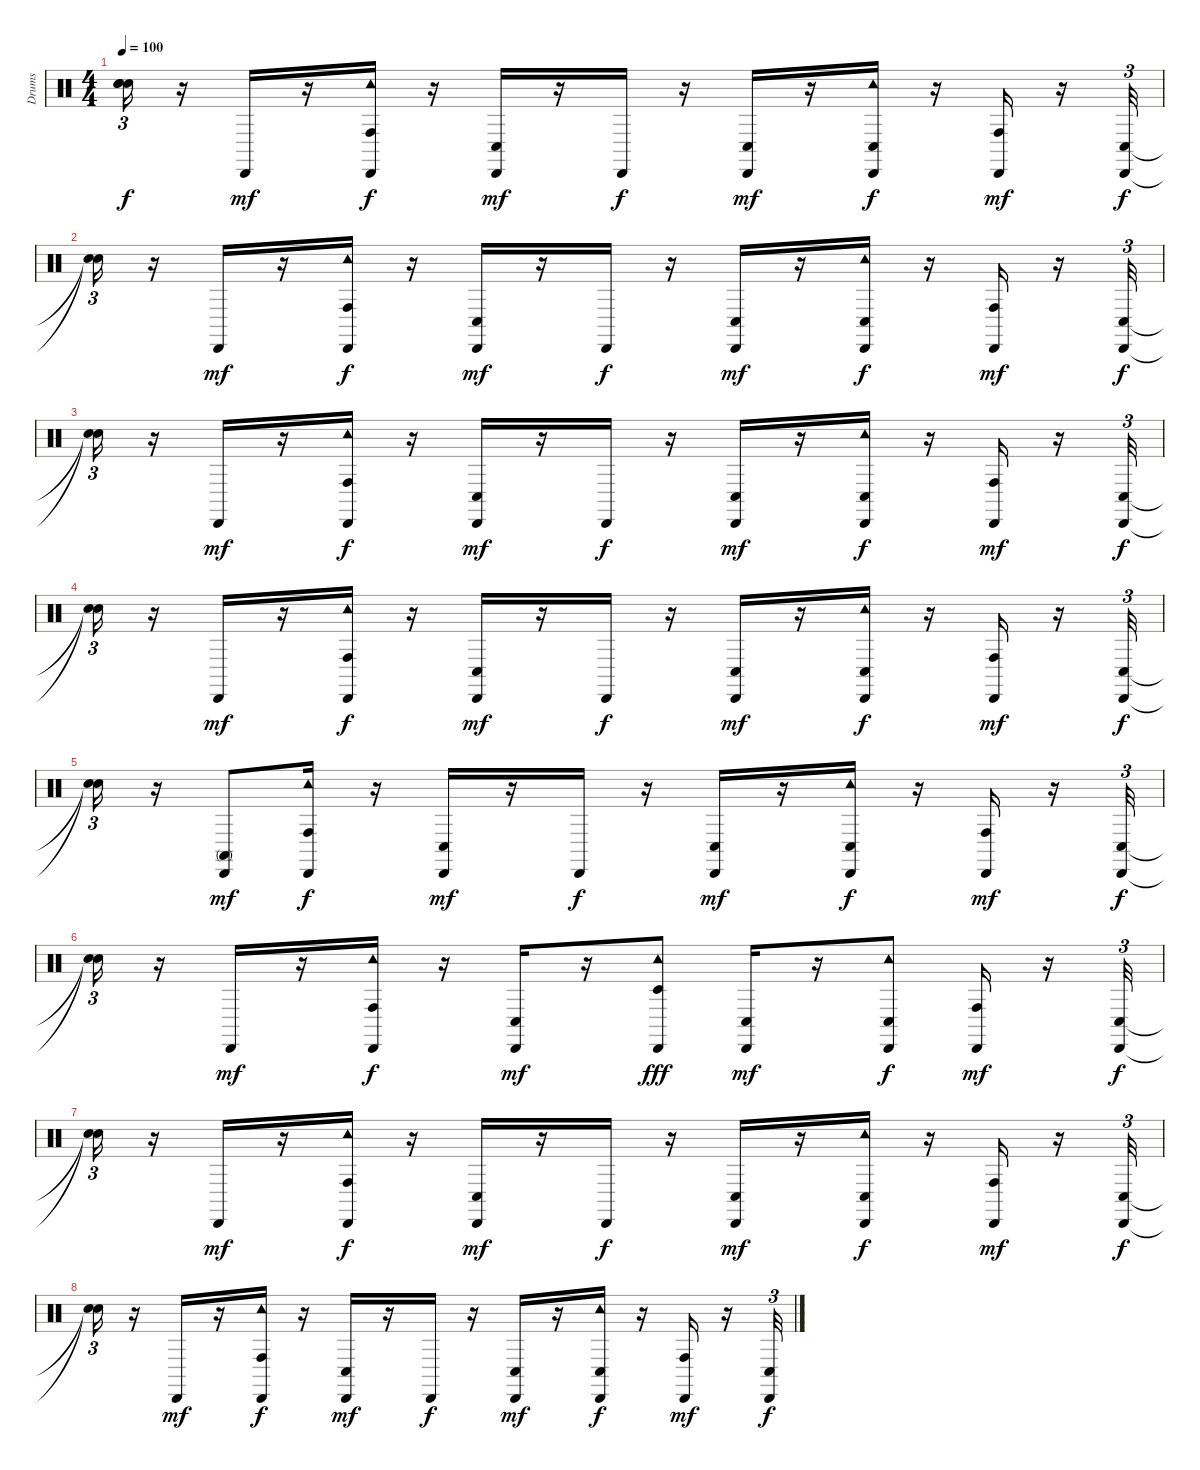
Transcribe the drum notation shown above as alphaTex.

\track ("Drums" "Drums") {instrument percussion}
\staff {score}
\articulation defaults
\ts (4 4)
\tempo 100
\clef neutral
\ks c
("Snare (hit)"{t} "Snare (hit)"{t} "Snare (hit)"{t}).16{tu (3 2) dy f} r.16 "Cabasa (hit)".16{dy mf} r.16 ("Tambourine (hit)" "Conga high (hit)" "Cabasa (hit)").16{dy f} r.16 ("Conga low (hit)" "Cabasa (hit)").16{dy mf} r.16 "Cabasa (hit)".16{dy f} r.16 ("Conga low (hit)" "Cabasa (hit)").16{dy mf} r.16 ("Tambourine (hit)" "Conga low (hit)" "Cabasa (hit)").16{dy f} r.16 ("Conga high (hit)" "Cabasa (hit)").16{dy mf} r.16 ("Conga low (hit)" "Cabasa (hit)").32{tu (3 2) dy f} |
("Snare (hit)"{t} "Snare (hit)"{t}).16{tu (3 2)} r.16 "Cabasa (hit)".16{dy mf} r.16 ("Tambourine (hit)" "Conga high (hit)" "Cabasa (hit)").16{dy f} r.16 ("Conga low (hit)" "Cabasa (hit)").16{dy mf} r.16 "Cabasa (hit)".16{dy f} r.16 ("Conga low (hit)" "Cabasa (hit)").16{dy mf} r.16 ("Tambourine (hit)" "Conga low (hit)" "Cabasa (hit)").16{dy f} r.16 ("Conga high (hit)" "Cabasa (hit)").16{dy mf} r.16 ("Conga low (hit)" "Cabasa (hit)").32{tu (3 2) dy f} |
("Snare (hit)"{t} "Snare (hit)"{t}).16{tu (3 2)} r.16 "Cabasa (hit)".16{dy mf} r.16 ("Tambourine (hit)" "Conga high (hit)" "Cabasa (hit)").16{dy f} r.16 ("Conga low (hit)" "Cabasa (hit)").16{dy mf} r.16 "Cabasa (hit)".16{dy f} r.16 ("Conga low (hit)" "Cabasa (hit)").16{dy mf} r.16 ("Tambourine (hit)" "Conga low (hit)" "Cabasa (hit)").16{dy f} r.16 ("Conga high (hit)" "Cabasa (hit)").16{dy mf} r.16 ("Conga low (hit)" "Cabasa (hit)").32{tu (3 2) dy f} |
("Snare (hit)"{t} "Snare (hit)"{t}).16{tu (3 2)} r.16 "Cabasa (hit)".16{dy mf} r.16 ("Tambourine (hit)" "Conga high (hit)" "Cabasa (hit)").16{dy f} r.16 ("Conga low (hit)" "Cabasa (hit)").16{dy mf} r.16 "Cabasa (hit)".16{dy f} r.16 ("Conga low (hit)" "Cabasa (hit)").16{dy mf} r.16 ("Tambourine (hit)" "Conga low (hit)" "Cabasa (hit)").16{dy f} r.16 ("Conga high (hit)" "Cabasa (hit)").16{dy mf} r.16 ("Conga low (hit)" "Cabasa (hit)").32{tu (3 2) dy f} |
("Snare (hit)"{t} "Snare (hit)"{t}).16{tu (3 2)} r.16 ("Conga high (mute)" "Cabasa (hit)").8{dy mf} ("Tambourine (hit)" "Conga high (hit)" "Cabasa (hit)").16{dy f} r.16 ("Conga low (hit)" "Cabasa (hit)").16{dy mf} r.16 "Cabasa (hit)".16{dy f} r.16 ("Conga low (hit)" "Cabasa (hit)").16{dy mf} r.16 ("Tambourine (hit)" "Conga low (hit)" "Cabasa (hit)").16{dy f} r.16 ("Conga high (hit)" "Cabasa (hit)").16{dy mf} r.16 ("Conga low (hit)" "Cabasa (hit)").32{tu (3 2) dy f} |
("Snare (hit)"{t} "Snare (hit)"{t}).16{tu (3 2)} r.16 "Cabasa (hit)".16{dy mf} r.16 ("Tambourine (hit)" "Conga high (hit)" "Cabasa (hit)").16{dy f} r.16 ("Conga low (hit)" "Cabasa (hit)").16{dy mf} r.16 ("Tambourine (hit)" "Timbale low (hit)" "Cabasa (hit)").8{dy fff} ("Conga low (hit)" "Cabasa (hit)").16{dy mf} r.16 ("Tambourine (hit)" "Conga low (hit)" "Cabasa (hit)").8{dy f} ("Conga high (hit)" "Cabasa (hit)").16{dy mf} r.16 ("Conga low (hit)" "Cabasa (hit)").32{tu (3 2) dy f} |
("Snare (hit)"{t} "Snare (hit)"{t}).16{tu (3 2)} r.16 "Cabasa (hit)".16{dy mf} r.16 ("Tambourine (hit)" "Conga high (hit)" "Cabasa (hit)").16{dy f} r.16 ("Conga low (hit)" "Cabasa (hit)").16{dy mf} r.16 "Cabasa (hit)".16{dy f} r.16 ("Conga low (hit)" "Cabasa (hit)").16{dy mf} r.16 ("Tambourine (hit)" "Conga low (hit)" "Cabasa (hit)").16{dy f} r.16 ("Conga high (hit)" "Cabasa (hit)").16{dy mf} r.16 ("Conga low (hit)" "Cabasa (hit)").32{tu (3 2) dy f} |
("Snare (hit)"{t} "Snare (hit)"{t}).16{tu (3 2)} r.16 "Cabasa (hit)".16{dy mf} r.16 ("Tambourine (hit)" "Conga high (hit)" "Cabasa (hit)").16{dy f} r.16 ("Conga low (hit)" "Cabasa (hit)").16{dy mf} r.16 "Cabasa (hit)".16{dy f} r.16 ("Conga low (hit)" "Cabasa (hit)").16{dy mf} r.16 ("Tambourine (hit)" "Conga low (hit)" "Cabasa (hit)").16{dy f} r.16 ("Conga high (hit)" "Cabasa (hit)").16{dy mf} r.16 ("Conga low (hit)" "Cabasa (hit)").32{tu (3 2) dy f}
